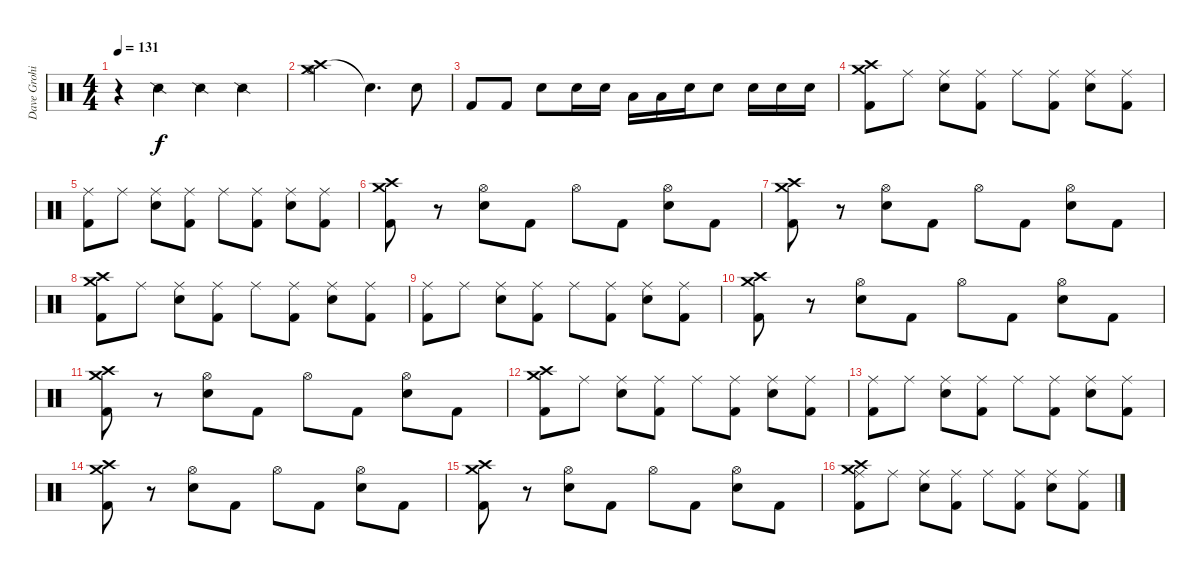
\track ("Dave Grohi" "Dave Grohi") {instrument percussion}
\staff {score}
\articulation defaults
\ts (4 4)
\tempo 131
\clef neutral
\ks c
r.4{dy f} "Snare (side stick) 2".4 "Snare (side stick) 2".4 "Snare (side stick) 2".4 |
("Crash high (hit)" "Crash medium (hit)" "Hi-Hat (open)").2 "Snare (hit)"{t}.4{d} "Snare (hit) 2".8 |
"Kick (hit) 2".8 "Kick (hit) 2".8 "Snare (hit) 2".8 "Snare (hit) 2".16 "Snare (hit) 2".16 "Low Tom (hit)".16 "Low Tom (hit)".16 "Snare (hit) 2".16 "Snare (hit) 2".8 "Snare (hit) 2".16 "Snare (hit) 2".16 "Snare (hit) 2".16 |
("Crash high (hit)" "Crash medium (hit)" "Kick (hit) 2").8 "Ride (middle)".8 ("Ride (middle)" "Snare (hit) 2").8 ("Ride (middle)" "Kick (hit) 2").8 "Ride (middle)".8 ("Ride (middle)" "Kick (hit) 2").8 ("Ride (middle)" "Snare (hit) 2").8 ("Ride (middle)" "Kick (hit) 2").8 |
("Ride (middle)" "Kick (hit) 2").8 "Ride (middle)".8 ("Ride (middle)" "Snare (hit) 2").8 ("Ride (middle)" "Kick (hit) 2").8 "Ride (middle)".8 ("Ride (middle)" "Kick (hit) 2").8 ("Ride (middle)" "Snare (hit) 2").8 ("Ride (middle)" "Kick (hit) 2").8 |
("Crash high (hit)" "Crash medium (hit)" "Kick (hit) 2").8 r.8 ("Hi-Hat (open)" "Snare (hit) 2").8 "Kick (hit) 2".8 "Hi-Hat (open)".8 "Kick (hit) 2".8 ("Hi-Hat (open)" "Snare (hit) 2").8 "Kick (hit) 2".8 |
("Crash high (hit)" "Crash medium (hit)" "Kick (hit) 2").8 r.8 ("Hi-Hat (open)" "Snare (hit) 2").8 "Kick (hit) 2".8 "Hi-Hat (open)".8 "Kick (hit) 2".8 ("Hi-Hat (open)" "Snare (hit) 2").8 "Kick (hit) 2".8 |
("Crash high (hit)" "Crash medium (hit)" "Kick (hit) 2").8 "Ride (middle)".8 ("Ride (middle)" "Snare (hit) 2").8 ("Ride (middle)" "Kick (hit) 2").8 "Ride (middle)".8 ("Ride (middle)" "Kick (hit) 2").8 ("Ride (middle)" "Snare (hit) 2").8 ("Ride (middle)" "Kick (hit) 2").8 |
("Ride (middle)" "Kick (hit) 2").8 "Ride (middle)".8 ("Ride (middle)" "Snare (hit) 2").8 ("Ride (middle)" "Kick (hit) 2").8 "Ride (middle)".8 ("Ride (middle)" "Kick (hit) 2").8 ("Ride (middle)" "Snare (hit) 2").8 ("Ride (middle)" "Kick (hit) 2").8 |
("Crash high (hit)" "Crash medium (hit)" "Kick (hit) 2").8 r.8 ("Hi-Hat (open)" "Snare (hit) 2").8 "Kick (hit) 2".8 "Hi-Hat (open)".8 "Kick (hit) 2".8 ("Hi-Hat (open)" "Snare (hit) 2").8 "Kick (hit) 2".8 |
("Crash high (hit)" "Crash medium (hit)" "Kick (hit) 2").8 r.8 ("Hi-Hat (open)" "Snare (hit) 2").8 "Kick (hit) 2".8 "Hi-Hat (open)".8 "Kick (hit) 2".8 ("Hi-Hat (open)" "Snare (hit) 2").8 "Kick (hit) 2".8 |
("Crash high (hit)" "Crash medium (hit)" "Kick (hit) 2").8 "Ride (middle)".8 ("Ride (middle)" "Snare (hit) 2").8 ("Ride (middle)" "Kick (hit) 2").8 "Ride (middle)".8 ("Ride (middle)" "Kick (hit) 2").8 ("Ride (middle)" "Snare (hit) 2").8 ("Ride (middle)" "Kick (hit) 2").8 |
("Ride (middle)" "Kick (hit) 2").8 "Ride (middle)".8 ("Ride (middle)" "Snare (hit) 2").8 ("Ride (middle)" "Kick (hit) 2").8 "Ride (middle)".8 ("Ride (middle)" "Kick (hit) 2").8 ("Ride (middle)" "Snare (hit) 2").8 ("Ride (middle)" "Kick (hit) 2").8 |
("Crash high (hit)" "Crash medium (hit)" "Kick (hit) 2").8 r.8 ("Hi-Hat (open)" "Snare (hit) 2").8 "Kick (hit) 2".8 "Hi-Hat (open)".8 "Kick (hit) 2".8 ("Hi-Hat (open)" "Snare (hit) 2").8 "Kick (hit) 2".8 |
("Crash high (hit)" "Crash medium (hit)" "Kick (hit) 2").8 r.8 ("Hi-Hat (open)" "Snare (hit) 2").8 "Kick (hit) 2".8 "Hi-Hat (open)".8 "Kick (hit) 2".8 ("Hi-Hat (open)" "Snare (hit) 2").8 "Kick (hit) 2".8 |
("Crash medium (hit)" "Crash high (hit)" "Ride (middle)" "Kick (hit) 2").8 "Ride (middle)".8 ("Ride (middle)" "Snare (hit) 2").8 ("Ride (middle)" "Kick (hit) 2").8 "Ride (middle)".8 ("Ride (middle)" "Kick (hit) 2").8 ("Ride (middle)" "Snare (hit) 2").8 ("Ride (middle)" "Kick (hit) 2").8
